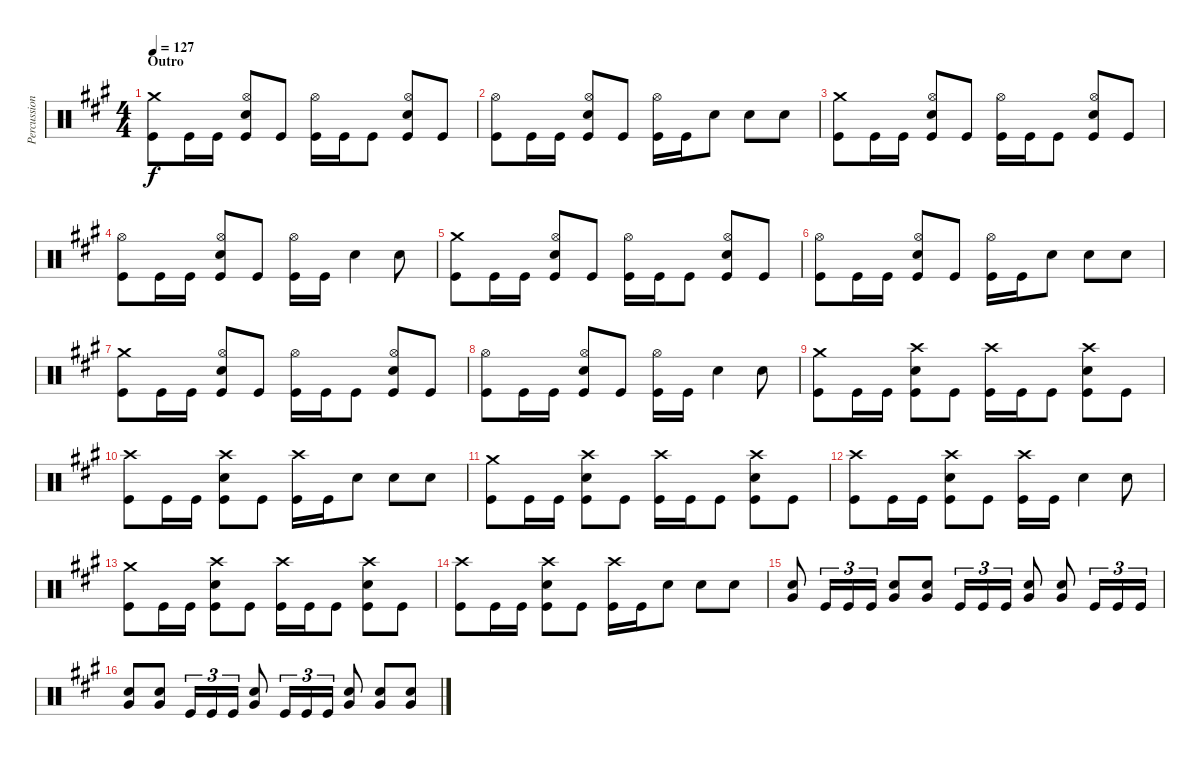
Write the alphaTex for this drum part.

\track ("Percussion" "Percussion") {instrument percussion}
\staff {score}
\articulation defaults
\ts (4 4)
\section ("" "Outro")
\tempo 127
\clef neutral
\ks a
("Crash medium (hit)" "Kick (hit)").8{dy f} "Kick (hit)".16 "Kick (hit)".16 ("Hi-Hat (open)" "Electric Snare (hit)" "Kick (hit)").8 "Kick (hit)".8 ("Hi-Hat (open)" "Kick (hit)").16 "Kick (hit)".16 "Kick (hit)".8 ("Hi-Hat (open)" "Electric Snare (hit)" "Kick (hit)").8 "Kick (hit)".8 |
("Hi-Hat (open)" "Kick (hit)").8 "Kick (hit)".16 "Kick (hit)".16 ("Hi-Hat (open)" "Electric Snare (hit)" "Kick (hit)").8 "Kick (hit)".8 ("Hi-Hat (open)" "Kick (hit)").16 "Kick (hit)".16 "Electric Snare (hit)".8 "Electric Snare (hit)".8 "Electric Snare (hit)".8 |
("Crash medium (hit)" "Kick (hit)").8 "Kick (hit)".16 "Kick (hit)".16 ("Hi-Hat (open)" "Electric Snare (hit)" "Kick (hit)").8 "Kick (hit)".8 ("Hi-Hat (open)" "Kick (hit)").16 "Kick (hit)".16 "Kick (hit)".8 ("Hi-Hat (open)" "Electric Snare (hit)" "Kick (hit)").8 "Kick (hit)".8 |
("Hi-Hat (open)" "Kick (hit)").8 "Kick (hit)".16 "Kick (hit)".16 ("Hi-Hat (open)" "Electric Snare (hit)" "Kick (hit)").8 "Kick (hit)".8 ("Hi-Hat (open)" "Kick (hit)").16 "Kick (hit)".16 "Electric Snare (hit)".4 "Electric Snare (hit)".8 |
("Crash medium (hit)" "Kick (hit)").8 "Kick (hit)".16 "Kick (hit)".16 ("Hi-Hat (open)" "Electric Snare (hit)" "Kick (hit)").8 "Kick (hit)".8 ("Hi-Hat (open)" "Kick (hit)").16 "Kick (hit)".16 "Kick (hit)".8 ("Hi-Hat (open)" "Electric Snare (hit)" "Kick (hit)").8 "Kick (hit)".8 |
("Hi-Hat (open)" "Kick (hit)").8 "Kick (hit)".16 "Kick (hit)".16 ("Hi-Hat (open)" "Electric Snare (hit)" "Kick (hit)").8 "Kick (hit)".8 ("Hi-Hat (open)" "Kick (hit)").16 "Kick (hit)".16 "Electric Snare (hit)".8 "Electric Snare (hit)".8 "Electric Snare (hit)".8 |
("Crash medium (hit)" "Kick (hit)").8 "Kick (hit)".16 "Kick (hit)".16 ("Hi-Hat (open)" "Electric Snare (hit)" "Kick (hit)").8 "Kick (hit)".8 ("Hi-Hat (open)" "Kick (hit)").16 "Kick (hit)".16 "Kick (hit)".8 ("Hi-Hat (open)" "Electric Snare (hit)" "Kick (hit)").8 "Kick (hit)".8 |
("Hi-Hat (open)" "Kick (hit)").8 "Kick (hit)".16 "Kick (hit)".16 ("Hi-Hat (open)" "Electric Snare (hit)" "Kick (hit)").8 "Kick (hit)".8 ("Hi-Hat (open)" "Kick (hit)").16 "Kick (hit)".16 "Electric Snare (hit)".4 "Electric Snare (hit)".8 |
("Crash medium (hit)" "Kick (hit)").8 "Kick (hit)".16 "Kick (hit)".16 ("Crash high (hit)" "Electric Snare (hit)" "Kick (hit)").8 "Kick (hit)".8 ("Crash high (hit)" "Kick (hit)").16 "Kick (hit)".16 "Kick (hit)".8 ("Crash high (hit)" "Electric Snare (hit)" "Kick (hit)").8 "Kick (hit)".8 |
("Crash high (hit)" "Kick (hit)").8 "Kick (hit)".16 "Kick (hit)".16 ("Crash high (hit)" "Electric Snare (hit)" "Kick (hit)").8 "Kick (hit)".8 ("Crash high (hit)" "Kick (hit)").16 "Kick (hit)".16 "Electric Snare (hit)".8 "Electric Snare (hit)".8 "Electric Snare (hit)".8 |
("Crash medium (hit)" "Kick (hit)").8 "Kick (hit)".16 "Kick (hit)".16 ("Crash high (hit)" "Electric Snare (hit)" "Kick (hit)").8 "Kick (hit)".8 ("Crash high (hit)" "Kick (hit)").16 "Kick (hit)".16 "Kick (hit)".8 ("Crash high (hit)" "Electric Snare (hit)" "Kick (hit)").8 "Kick (hit)".8 |
("Crash high (hit)" "Kick (hit)").8 "Kick (hit)".16 "Kick (hit)".16 ("Crash high (hit)" "Electric Snare (hit)" "Kick (hit)").8 "Kick (hit)".8 ("Crash high (hit)" "Kick (hit)").16 "Kick (hit)".16 "Electric Snare (hit)".4 "Electric Snare (hit)".8 |
("Crash medium (hit)" "Kick (hit)").8 "Kick (hit)".16 "Kick (hit)".16 ("Crash high (hit)" "Electric Snare (hit)" "Kick (hit)").8 "Kick (hit)".8 ("Crash high (hit)" "Kick (hit)").16 "Kick (hit)".16 "Kick (hit)".8 ("Crash high (hit)" "Electric Snare (hit)" "Kick (hit)").8 "Kick (hit)".8 |
("Crash high (hit)" "Kick (hit)").8 "Kick (hit)".16 "Kick (hit)".16 ("Crash high (hit)" "Electric Snare (hit)" "Kick (hit)").8 "Kick (hit)".8 ("Crash high (hit)" "Kick (hit)").16 "Kick (hit)".16 "Electric Snare (hit)".8 "Electric Snare (hit)".8 "Electric Snare (hit)".8 |
("Very Low Tom (hit)" "Electric Snare (hit)").8 "Kick (hit)".16{tu (3 2)} "Kick (hit)".16{tu (3 2)} "Kick (hit)".16{tu (3 2)} ("Very Low Tom (hit)" "Electric Snare (hit)").8 ("Very Low Tom (hit)" "Electric Snare (hit)").8 "Kick (hit)".16{tu (3 2)} "Kick (hit)".16{tu (3 2)} "Kick (hit)".16{tu (3 2)} ("Very Low Tom (hit)" "Electric Snare (hit)").8 ("Very Low Tom (hit)" "Electric Snare (hit)").8 "Kick (hit)".16{tu (3 2)} "Kick (hit)".16{tu (3 2)} "Kick (hit)".16{tu (3 2)} |
("Very Low Tom (hit)" "Electric Snare (hit)").8 ("Very Low Tom (hit)" "Electric Snare (hit)").8 "Kick (hit)".16{tu (3 2)} "Kick (hit)".16{tu (3 2)} "Kick (hit)".16{tu (3 2)} ("Very Low Tom (hit)" "Electric Snare (hit)").8 "Kick (hit)".16{tu (3 2)} "Kick (hit)".16{tu (3 2)} "Kick (hit)".16{tu (3 2)} ("Very Low Tom (hit)" "Electric Snare (hit)").8 ("Very Low Tom (hit)" "Electric Snare (hit)").8 ("Very Low Tom (hit)" "Electric Snare (hit)").8
